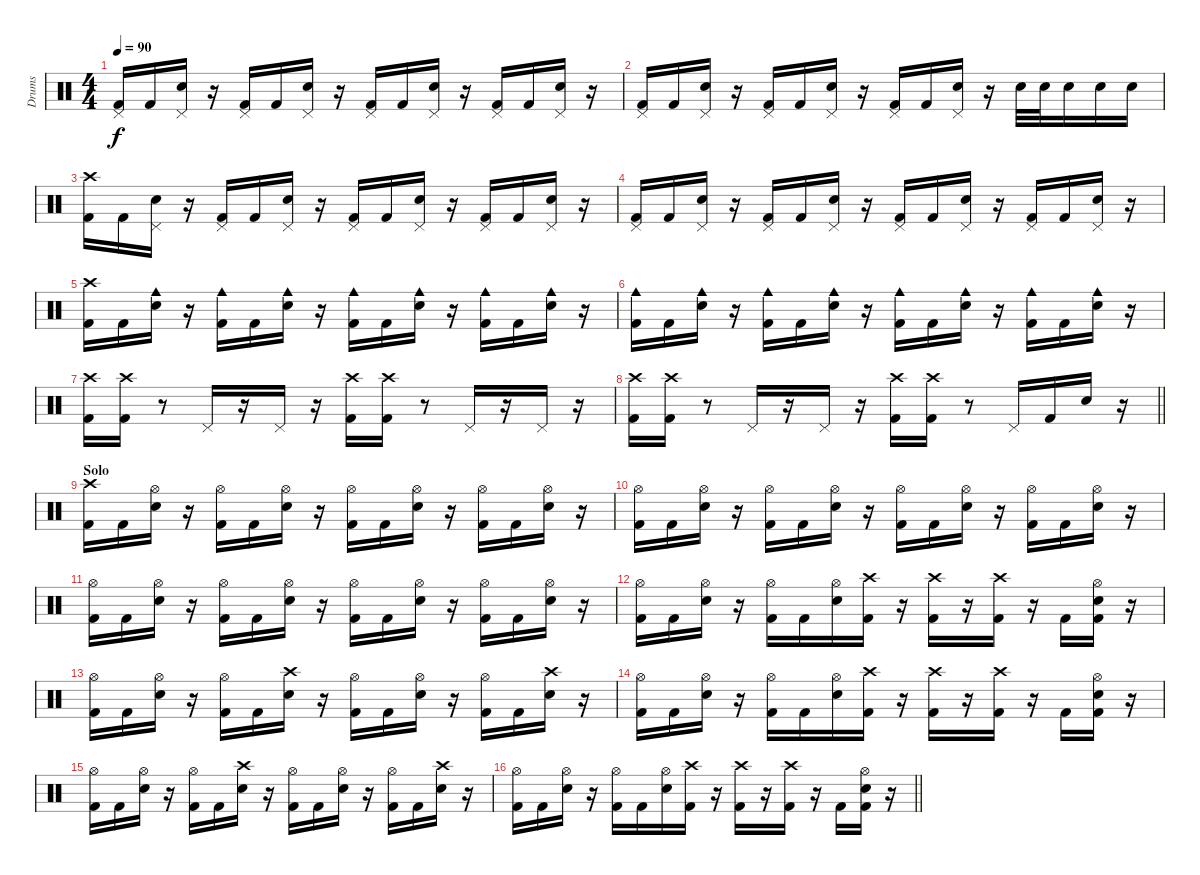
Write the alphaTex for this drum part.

\track ("Drums" "Drums") {instrument percussion}
\staff {score}
\articulation defaults
\ts (4 4)
\tempo 90
\clef neutral
\ks c
("Pedal Hi-Hat (hit)" "Kick (hit) 2").16{dy f} "Kick (hit) 2".16 ("Pedal Hi-Hat (hit)" "Snare (hit) 2").16 r.16 ("Pedal Hi-Hat (hit)" "Kick (hit) 2").16 "Kick (hit) 2".16 ("Pedal Hi-Hat (hit)" "Snare (hit) 2").16 r.16 ("Pedal Hi-Hat (hit)" "Kick (hit) 2").16 "Kick (hit) 2".16 ("Pedal Hi-Hat (hit)" "Snare (hit) 2").16 r.16 ("Pedal Hi-Hat (hit)" "Kick (hit) 2").16 "Kick (hit) 2".16 ("Pedal Hi-Hat (hit)" "Snare (hit) 2").16 r.16 |
("Pedal Hi-Hat (hit)" "Kick (hit) 2").16 "Kick (hit) 2".16 ("Pedal Hi-Hat (hit)" "Snare (hit) 2").16 r.16 ("Pedal Hi-Hat (hit)" "Kick (hit) 2").16 "Kick (hit) 2".16 ("Pedal Hi-Hat (hit)" "Snare (hit) 2").16 r.16 ("Pedal Hi-Hat (hit)" "Kick (hit) 2").16 "Kick (hit) 2".16 ("Pedal Hi-Hat (hit)" "Snare (hit) 2").16 r.16 "Snare (hit) 2".32 "Snare (hit) 2".32 "Snare (hit) 2".16 "Snare (hit) 2".16 "Snare (hit) 2".16 |
("Crash high (hit)" "Kick (hit) 2").16 "Kick (hit) 2".16 ("Pedal Hi-Hat (hit)" "Snare (hit) 2").16 r.16 ("Pedal Hi-Hat (hit)" "Kick (hit) 2").16 "Kick (hit) 2".16 ("Pedal Hi-Hat (hit)" "Snare (hit) 2").16 r.16 ("Pedal Hi-Hat (hit)" "Kick (hit) 2").16 "Kick (hit) 2".16 ("Pedal Hi-Hat (hit)" "Snare (hit) 2").16 r.16 ("Pedal Hi-Hat (hit)" "Kick (hit) 2").16 "Kick (hit) 2".16 ("Pedal Hi-Hat (hit)" "Snare (hit) 2").16 r.16 |
("Pedal Hi-Hat (hit)" "Kick (hit) 2").16 "Kick (hit) 2".16 ("Pedal Hi-Hat (hit)" "Snare (hit) 2").16 r.16 ("Pedal Hi-Hat (hit)" "Kick (hit) 2").16 "Kick (hit) 2".16 ("Pedal Hi-Hat (hit)" "Snare (hit) 2").16 r.16 ("Pedal Hi-Hat (hit)" "Kick (hit) 2").16 "Kick (hit) 2".16 ("Pedal Hi-Hat (hit)" "Snare (hit) 2").16 r.16 ("Pedal Hi-Hat (hit)" "Kick (hit) 2").16 "Kick (hit) 2".16 ("Pedal Hi-Hat (hit)" "Snare (hit) 2").16 r.16 |
("Crash high (hit)" "Kick (hit) 2").16 "Kick (hit) 2".16 ("Cowbell medium (hit)" "Snare (hit) 2").16 r.16 ("Cowbell medium (hit)" "Kick (hit) 2").16 "Kick (hit) 2".16 ("Cowbell medium (hit)" "Snare (hit) 2").16 r.16 ("Cowbell medium (hit)" "Kick (hit) 2").16 "Kick (hit) 2".16 ("Cowbell medium (hit)" "Snare (hit) 2").16 r.16 ("Cowbell medium (hit)" "Kick (hit) 2").16 "Kick (hit) 2".16 ("Cowbell medium (hit)" "Snare (hit) 2").16 r.16 |
("Cowbell medium (hit)" "Kick (hit) 2").16 "Kick (hit) 2".16 ("Cowbell medium (hit)" "Snare (hit) 2").16 r.16 ("Cowbell medium (hit)" "Kick (hit) 2").16 "Kick (hit) 2".16 ("Cowbell medium (hit)" "Snare (hit) 2").16 r.16 ("Cowbell medium (hit)" "Kick (hit) 2").16 "Kick (hit) 2".16 ("Cowbell medium (hit)" "Snare (hit) 2").16 r.16 ("Cowbell medium (hit)" "Kick (hit) 2").16 "Kick (hit) 2".16 ("Cowbell medium (hit)" "Snare (hit) 2").16 r.16 |
("Crash high (hit)" "Kick (hit) 2").16 ("Crash high (hit)" "Kick (hit) 2").16 r.8 "Pedal Hi-Hat (hit)".16 r.16 "Pedal Hi-Hat (hit)".16 r.16 ("Crash high (hit)" "Kick (hit) 2").16 ("Crash high (hit)" "Kick (hit) 2").16 r.8 "Pedal Hi-Hat (hit)".16 r.16 "Pedal Hi-Hat (hit)".16 r.16 |
\barLineRight lightlight
("Crash high (hit)" "Kick (hit) 2").16 ("Crash high (hit)" "Kick (hit) 2").16 r.8 "Pedal Hi-Hat (hit)".16 r.16 "Pedal Hi-Hat (hit)".16 r.16 ("Crash high (hit)" "Kick (hit) 2").16 ("Crash high (hit)" "Kick (hit) 2").16 r.8 "Pedal Hi-Hat (hit)".16 "Kick (hit) 2".16 "Snare (hit) 2".16 r.16 |
\section ("" "Solo")
("Crash high (hit)" "Kick (hit) 2").16 "Kick (hit) 2".16 ("Hi-Hat (open)" "Snare (hit) 2").16 r.16 ("Hi-Hat (open)" "Kick (hit) 2").16 "Kick (hit) 2".16 ("Hi-Hat (open)" "Snare (hit) 2").16 r.16 ("Hi-Hat (open)" "Kick (hit) 2").16 "Kick (hit) 2".16 ("Hi-Hat (open)" "Snare (hit) 2").16 r.16 ("Hi-Hat (open)" "Kick (hit) 2").16 "Kick (hit) 2".16 ("Hi-Hat (open)" "Snare (hit) 2").16 r.16 |
("Hi-Hat (open)" "Kick (hit) 2").16 "Kick (hit) 2".16 ("Hi-Hat (open)" "Snare (hit) 2").16 r.16 ("Hi-Hat (open)" "Kick (hit) 2").16 "Kick (hit) 2".16 ("Hi-Hat (open)" "Snare (hit) 2").16 r.16 ("Hi-Hat (open)" "Kick (hit) 2").16 "Kick (hit) 2".16 ("Hi-Hat (open)" "Snare (hit) 2").16 r.16 ("Hi-Hat (open)" "Kick (hit) 2").16 "Kick (hit) 2".16 ("Hi-Hat (open)" "Snare (hit) 2").16 r.16 |
("Hi-Hat (open)" "Kick (hit) 2").16 "Kick (hit) 2".16 ("Hi-Hat (open)" "Snare (hit) 2").16 r.16 ("Hi-Hat (open)" "Kick (hit) 2").16 "Kick (hit) 2".16 ("Hi-Hat (open)" "Snare (hit) 2").16 r.16 ("Hi-Hat (open)" "Kick (hit) 2").16 "Kick (hit) 2".16 ("Hi-Hat (open)" "Snare (hit) 2").16 r.16 ("Hi-Hat (open)" "Kick (hit) 2").16 "Kick (hit) 2".16 ("Hi-Hat (open)" "Snare (hit) 2").16 r.16 |
("Hi-Hat (open)" "Kick (hit) 2").16 "Kick (hit) 2".16 ("Hi-Hat (open)" "Snare (hit) 2").16 r.16 ("Hi-Hat (open)" "Kick (hit) 2").16 "Kick (hit) 2".16 ("Hi-Hat (open)" "Snare (hit) 2").16 ("Crash high (hit)" "Kick (hit) 2").16 r.16 ("Crash high (hit)" "Kick (hit) 2").16 r.16 ("Crash high (hit)" "Kick (hit) 2").16 r.16 "Kick (hit) 2".16 ("Hi-Hat (open)" "Snare (hit) 2" "Kick (hit) 2").16 r.16 |
("Hi-Hat (open)" "Kick (hit) 2").16 "Kick (hit) 2".16 ("Hi-Hat (open)" "Snare (hit) 2").16 r.16 ("Hi-Hat (open)" "Kick (hit) 2").16 "Kick (hit) 2".16 ("Crash high (hit)" "Snare (hit) 2").16 r.16 ("Hi-Hat (open)" "Kick (hit) 2").16 "Kick (hit) 2".16 ("Hi-Hat (open)" "Snare (hit) 2").16 r.16 ("Hi-Hat (open)" "Kick (hit) 2").16 "Kick (hit) 2".16 ("Crash high (hit)" "Snare (hit) 2").16 r.16 |
("Hi-Hat (open)" "Kick (hit) 2").16 "Kick (hit) 2".16 ("Hi-Hat (open)" "Snare (hit) 2").16 r.16 ("Hi-Hat (open)" "Kick (hit) 2").16 "Kick (hit) 2".16 ("Hi-Hat (open)" "Snare (hit) 2").16 ("Crash high (hit)" "Kick (hit) 2").16 r.16 ("Crash high (hit)" "Kick (hit) 2").16 r.16 ("Crash high (hit)" "Kick (hit) 2").16 r.16 "Kick (hit) 2".16 ("Hi-Hat (open)" "Snare (hit) 2" "Kick (hit) 2").16 r.16 |
("Hi-Hat (open)" "Kick (hit) 2").16 "Kick (hit) 2".16 ("Hi-Hat (open)" "Snare (hit) 2").16 r.16 ("Hi-Hat (open)" "Kick (hit) 2").16 "Kick (hit) 2".16 ("Crash high (hit)" "Snare (hit) 2").16 r.16 ("Hi-Hat (open)" "Kick (hit) 2").16 "Kick (hit) 2".16 ("Hi-Hat (open)" "Snare (hit) 2").16 r.16 ("Hi-Hat (open)" "Kick (hit) 2").16 "Kick (hit) 2".16 ("Crash high (hit)" "Snare (hit) 2").16 r.16 |
\barLineRight lightlight
("Hi-Hat (open)" "Kick (hit) 2").16 "Kick (hit) 2".16 ("Hi-Hat (open)" "Snare (hit) 2").16 r.16 ("Hi-Hat (open)" "Kick (hit) 2").16 "Kick (hit) 2".16 ("Hi-Hat (open)" "Snare (hit) 2").16 ("Crash high (hit)" "Kick (hit) 2").16 r.16 ("Crash high (hit)" "Kick (hit) 2").16 r.16 ("Crash high (hit)" "Kick (hit) 2").16 r.16 "Kick (hit) 2".16 ("Hi-Hat (open)" "Snare (hit) 2" "Kick (hit) 2").16 r.16
